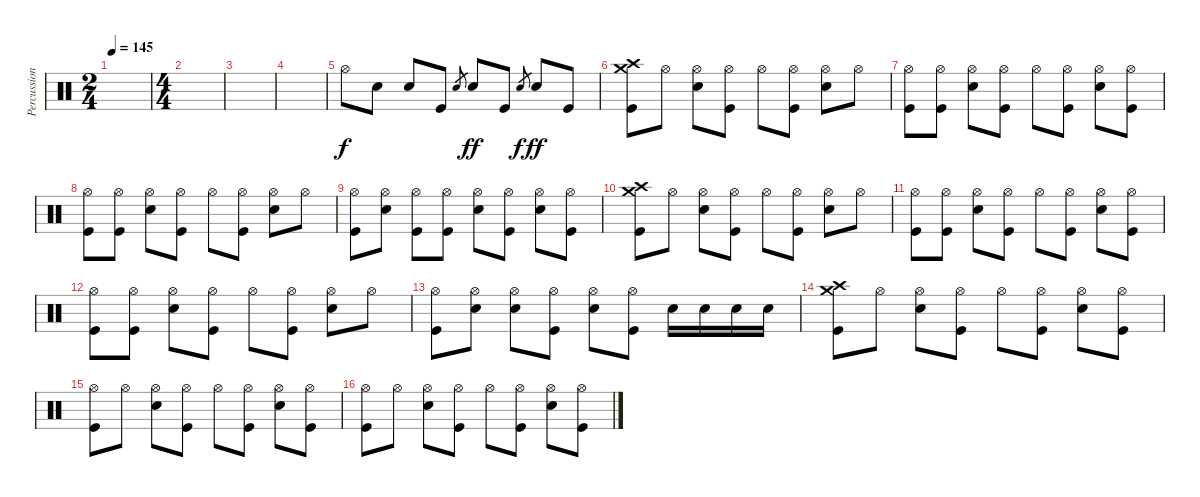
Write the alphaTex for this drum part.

\track ("Percussion" "Percussion") {instrument percussion}
\staff {score}
\articulation defaults
\ts (2 4)
\tempo 145
\clef neutral
\ks c
|
\ts (4 4)
|
|
|
"Hi-Hat (open)".8 "Electric Snare (hit)".8 "Electric Snare (hit)".8 "Kick (hit)".8 "Electric Snare (hit)".8{gr dy f} "Electric Snare (hit)".8{dy ff} "Kick (hit)".8 "Electric Snare (hit)".8{gr dy f} "Electric Snare (hit)".8{dy ff} "Kick (hit)".8 |
("Crash high (hit)" "Crash medium (hit)" "Kick (hit)").8 "Hi-Hat (open)".8 ("Hi-Hat (open)" "Electric Snare (hit)").8 ("Hi-Hat (open)" "Kick (hit)").8 "Hi-Hat (open)".8 ("Hi-Hat (open)" "Kick (hit)").8 ("Hi-Hat (open)" "Electric Snare (hit)").8 "Hi-Hat (open)".8 |
("Hi-Hat (open)" "Kick (hit)").8 ("Hi-Hat (open)" "Kick (hit)").8 ("Hi-Hat (open)" "Electric Snare (hit)").8 ("Hi-Hat (open)" "Kick (hit)").8 "Hi-Hat (open)".8 ("Hi-Hat (open)" "Kick (hit)").8 ("Hi-Hat (open)" "Electric Snare (hit)").8 ("Hi-Hat (open)" "Kick (hit)").8 |
("Hi-Hat (open)" "Kick (hit)").8 ("Hi-Hat (open)" "Kick (hit)").8 ("Hi-Hat (open)" "Electric Snare (hit)").8 ("Hi-Hat (open)" "Kick (hit)").8 "Hi-Hat (open)".8 ("Hi-Hat (open)" "Kick (hit)").8 ("Hi-Hat (open)" "Electric Snare (hit)").8 "Hi-Hat (open)".8 |
("Hi-Hat (open)" "Kick (hit)").8 ("Hi-Hat (open)" "Electric Snare (hit)").8 ("Hi-Hat (open)" "Kick (hit)").8 ("Hi-Hat (open)" "Kick (hit)").8 ("Hi-Hat (open)" "Electric Snare (hit)").8 ("Hi-Hat (open)" "Kick (hit)").8 ("Hi-Hat (open)" "Electric Snare (hit)").8 ("Hi-Hat (open)" "Kick (hit)").8 |
("Crash high (hit)" "Crash medium (hit)" "Kick (hit)").8 "Hi-Hat (open)".8 ("Hi-Hat (open)" "Electric Snare (hit)").8 ("Hi-Hat (open)" "Kick (hit)").8 "Hi-Hat (open)".8 ("Hi-Hat (open)" "Kick (hit)").8 ("Hi-Hat (open)" "Electric Snare (hit)").8 "Hi-Hat (open)".8 |
("Hi-Hat (open)" "Kick (hit)").8 ("Hi-Hat (open)" "Kick (hit)").8 ("Hi-Hat (open)" "Electric Snare (hit)").8 ("Hi-Hat (open)" "Kick (hit)").8 "Hi-Hat (open)".8 ("Hi-Hat (open)" "Kick (hit)").8 ("Hi-Hat (open)" "Electric Snare (hit)").8 ("Hi-Hat (open)" "Kick (hit)").8 |
("Hi-Hat (open)" "Kick (hit)").8 ("Hi-Hat (open)" "Kick (hit)").8 ("Hi-Hat (open)" "Electric Snare (hit)").8 ("Hi-Hat (open)" "Kick (hit)").8 "Hi-Hat (open)".8 ("Hi-Hat (open)" "Kick (hit)").8 ("Hi-Hat (open)" "Electric Snare (hit)").8 "Hi-Hat (open)".8 |
("Hi-Hat (open)" "Kick (hit)").8 ("Hi-Hat (open)" "Electric Snare (hit)").8 ("Hi-Hat (open)" "Electric Snare (hit)").8 ("Hi-Hat (open)" "Kick (hit)").8 ("Hi-Hat (open)" "Electric Snare (hit)").8 ("Hi-Hat (open)" "Kick (hit)").8 "Electric Snare (hit)".16 "Electric Snare (hit)".16 "Electric Snare (hit)".16 "Electric Snare (hit)".16 |
("Crash high (hit)" "Crash medium (hit)" "Kick (hit)").8 "Hi-Hat (open)".8 ("Hi-Hat (open)" "Electric Snare (hit)").8 ("Hi-Hat (open)" "Kick (hit)").8 "Hi-Hat (open)".8 ("Hi-Hat (open)" "Kick (hit)").8 ("Hi-Hat (open)" "Electric Snare (hit)").8 ("Hi-Hat (open)" "Kick (hit)").8 |
("Hi-Hat (open)" "Kick (hit)").8 "Hi-Hat (open)".8 ("Hi-Hat (open)" "Electric Snare (hit)").8 ("Hi-Hat (open)" "Kick (hit)").8 "Hi-Hat (open)".8 ("Hi-Hat (open)" "Kick (hit)").8 ("Hi-Hat (open)" "Electric Snare (hit)").8 ("Hi-Hat (open)" "Kick (hit)").8 |
("Hi-Hat (open)" "Kick (hit)").8 "Hi-Hat (open)".8 ("Hi-Hat (open)" "Electric Snare (hit)").8 ("Hi-Hat (open)" "Kick (hit)").8 "Hi-Hat (open)".8 ("Hi-Hat (open)" "Kick (hit)").8 ("Hi-Hat (open)" "Electric Snare (hit)").8 ("Hi-Hat (open)" "Kick (hit)").8
